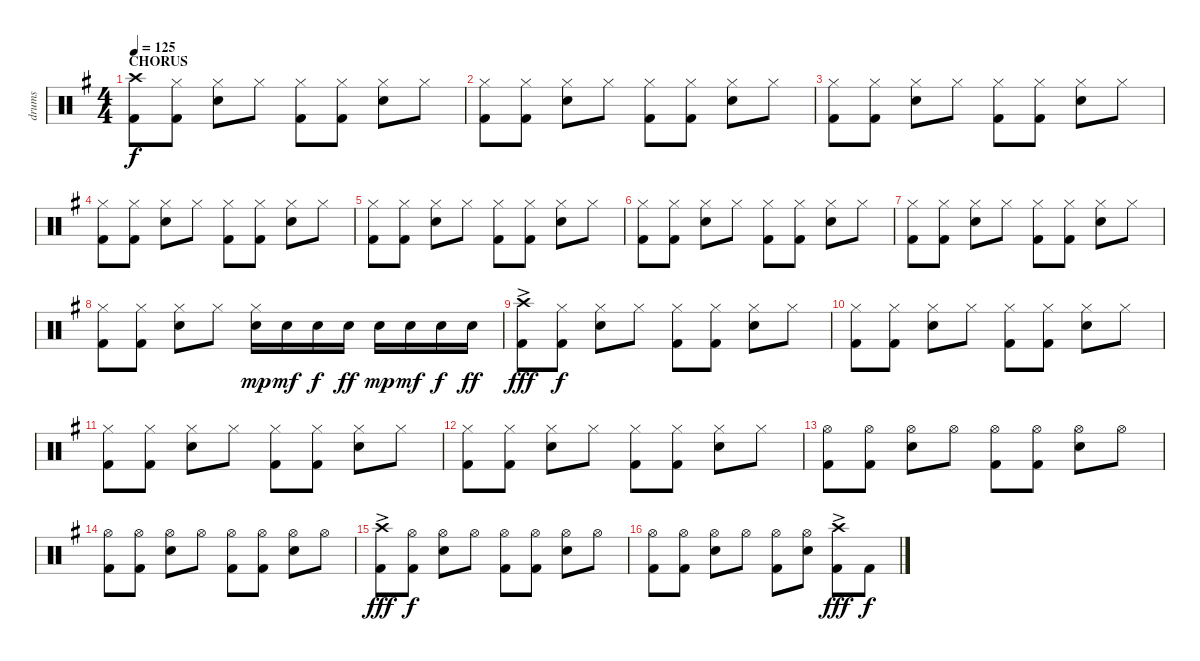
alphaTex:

\track ("drums" "drums") {instrument percussion}
\staff {score}
\articulation defaults
\ts (4 4)
\section ("" "CHORUS")
\tempo 125
\clef neutral
\ks eminor
("Crash high (hit)" "Kick (hit) 2").8{dy f} ("Hi-Hat (closed)" "Kick (hit) 2").8 ("Hi-Hat (closed)" "Snare (hit) 2").8 "Hi-Hat (closed)".8 ("Hi-Hat (closed)" "Kick (hit) 2").8 ("Hi-Hat (closed)" "Kick (hit) 2").8 ("Hi-Hat (closed)" "Snare (hit) 2").8 "Hi-Hat (closed)".8 |
("Hi-Hat (closed)" "Kick (hit) 2").8 ("Hi-Hat (closed)" "Kick (hit) 2").8 ("Hi-Hat (closed)" "Snare (hit) 2").8 "Hi-Hat (closed)".8 ("Hi-Hat (closed)" "Kick (hit) 2").8 ("Hi-Hat (closed)" "Kick (hit) 2").8 ("Hi-Hat (closed)" "Snare (hit) 2").8 "Hi-Hat (closed)".8 |
("Hi-Hat (closed)" "Kick (hit) 2").8 ("Hi-Hat (closed)" "Kick (hit) 2").8 ("Hi-Hat (closed)" "Snare (hit) 2").8 "Hi-Hat (closed)".8 ("Hi-Hat (closed)" "Kick (hit) 2").8 ("Hi-Hat (closed)" "Kick (hit) 2").8 ("Hi-Hat (closed)" "Snare (hit) 2").8 "Hi-Hat (closed)".8 |
("Hi-Hat (closed)" "Kick (hit) 2").8 ("Hi-Hat (closed)" "Kick (hit) 2").8 ("Hi-Hat (closed)" "Snare (hit) 2").8 "Hi-Hat (closed)".8 ("Hi-Hat (closed)" "Kick (hit) 2").8 ("Hi-Hat (closed)" "Kick (hit) 2").8 ("Hi-Hat (closed)" "Snare (hit) 2").8 "Hi-Hat (closed)".8 |
("Hi-Hat (closed)" "Kick (hit) 2").8 ("Hi-Hat (closed)" "Kick (hit) 2").8 ("Hi-Hat (closed)" "Snare (hit) 2").8 "Hi-Hat (closed)".8 ("Hi-Hat (closed)" "Kick (hit) 2").8 ("Hi-Hat (closed)" "Kick (hit) 2").8 ("Hi-Hat (closed)" "Snare (hit) 2").8 "Hi-Hat (closed)".8 |
("Hi-Hat (closed)" "Kick (hit) 2").8 ("Hi-Hat (closed)" "Kick (hit) 2").8 ("Hi-Hat (closed)" "Snare (hit) 2").8 "Hi-Hat (closed)".8 ("Hi-Hat (closed)" "Kick (hit) 2").8 ("Hi-Hat (closed)" "Kick (hit) 2").8 ("Hi-Hat (closed)" "Snare (hit) 2").8 "Hi-Hat (closed)".8 |
("Hi-Hat (closed)" "Kick (hit) 2").8 ("Hi-Hat (closed)" "Kick (hit) 2").8 ("Hi-Hat (closed)" "Snare (hit) 2").8 "Hi-Hat (closed)".8 ("Hi-Hat (closed)" "Kick (hit) 2").8 ("Hi-Hat (closed)" "Kick (hit) 2").8 ("Hi-Hat (closed)" "Snare (hit) 2").8 "Hi-Hat (closed)".8 |
("Hi-Hat (closed)" "Kick (hit) 2").8 ("Hi-Hat (closed)" "Kick (hit) 2").8 ("Hi-Hat (closed)" "Snare (hit) 2").8 "Hi-Hat (closed)".8 ("Hi-Hat (closed)" "Snare (hit) 2").16{dy mp} "Snare (hit) 2".16{dy mf} "Snare (hit) 2".16{dy f} "Snare (hit) 2".16{dy ff} "Snare (hit) 2".16{dy mp} "Snare (hit) 2".16{dy mf} "Snare (hit) 2".16{dy f} "Snare (hit) 2".16{dy ff} |
("Crash high (hit)"{ac} "Kick (hit) 2"{ac}).8{dy fff} ("Hi-Hat (closed)" "Kick (hit) 2").8{dy f} ("Hi-Hat (closed)" "Snare (hit) 2").8 "Hi-Hat (closed)".8 ("Hi-Hat (closed)" "Kick (hit) 2").8 ("Hi-Hat (closed)" "Kick (hit) 2").8 ("Hi-Hat (closed)" "Snare (hit) 2").8 "Hi-Hat (closed)".8 |
("Hi-Hat (closed)" "Kick (hit) 2").8 ("Hi-Hat (closed)" "Kick (hit) 2").8 ("Hi-Hat (closed)" "Snare (hit) 2").8 "Hi-Hat (closed)".8 ("Hi-Hat (closed)" "Kick (hit) 2").8 ("Hi-Hat (closed)" "Kick (hit) 2").8 ("Hi-Hat (closed)" "Snare (hit) 2").8 "Hi-Hat (closed)".8 |
("Hi-Hat (closed)" "Kick (hit) 2").8 ("Hi-Hat (closed)" "Kick (hit) 2").8 ("Hi-Hat (closed)" "Snare (hit) 2").8 "Hi-Hat (closed)".8 ("Hi-Hat (closed)" "Kick (hit) 2").8 ("Hi-Hat (closed)" "Kick (hit) 2").8 ("Hi-Hat (closed)" "Snare (hit) 2").8 "Hi-Hat (closed)".8 |
("Hi-Hat (closed)" "Kick (hit) 2").8 ("Hi-Hat (closed)" "Kick (hit) 2").8 ("Hi-Hat (closed)" "Snare (hit) 2").8 "Hi-Hat (closed)".8 ("Hi-Hat (closed)" "Kick (hit) 2").8 ("Hi-Hat (closed)" "Kick (hit) 2").8 ("Hi-Hat (closed)" "Snare (hit) 2").8 "Hi-Hat (closed)".8 |
("Hi-Hat (open)" "Kick (hit) 2").8 ("Hi-Hat (open)" "Kick (hit) 2").8 ("Hi-Hat (open)" "Snare (hit) 2").8 "Hi-Hat (open)".8 ("Hi-Hat (open)" "Kick (hit) 2").8 ("Hi-Hat (open)" "Kick (hit) 2").8 ("Hi-Hat (open)" "Snare (hit) 2").8 "Hi-Hat (open)".8 |
("Hi-Hat (open)" "Kick (hit) 2").8 ("Hi-Hat (open)" "Kick (hit) 2").8 ("Hi-Hat (open)" "Snare (hit) 2").8 "Hi-Hat (open)".8 ("Hi-Hat (open)" "Kick (hit) 2").8 ("Hi-Hat (open)" "Kick (hit) 2").8 ("Hi-Hat (open)" "Snare (hit) 2").8 "Hi-Hat (open)".8 |
("Crash high (hit)"{ac} "Kick (hit) 2"{ac}).8{dy fff} ("Hi-Hat (open)" "Kick (hit) 2").8{dy f} ("Hi-Hat (open)" "Snare (hit) 2").8 "Hi-Hat (open)".8 ("Hi-Hat (open)" "Kick (hit) 2").8 ("Hi-Hat (open)" "Kick (hit) 2").8 ("Hi-Hat (open)" "Snare (hit) 2").8 "Hi-Hat (open)".8 |
("Hi-Hat (open)" "Kick (hit) 2").8 ("Hi-Hat (open)" "Kick (hit) 2").8 ("Hi-Hat (open)" "Snare (hit) 2").8 "Hi-Hat (open)".8 ("Hi-Hat (open)" "Kick (hit) 2").8 ("Hi-Hat (open)" "Snare (hit) 2").8 ("Crash high (hit)"{ac} "Kick (hit) 2").8{dy fff} "Kick (hit) 2".8{dy f}
